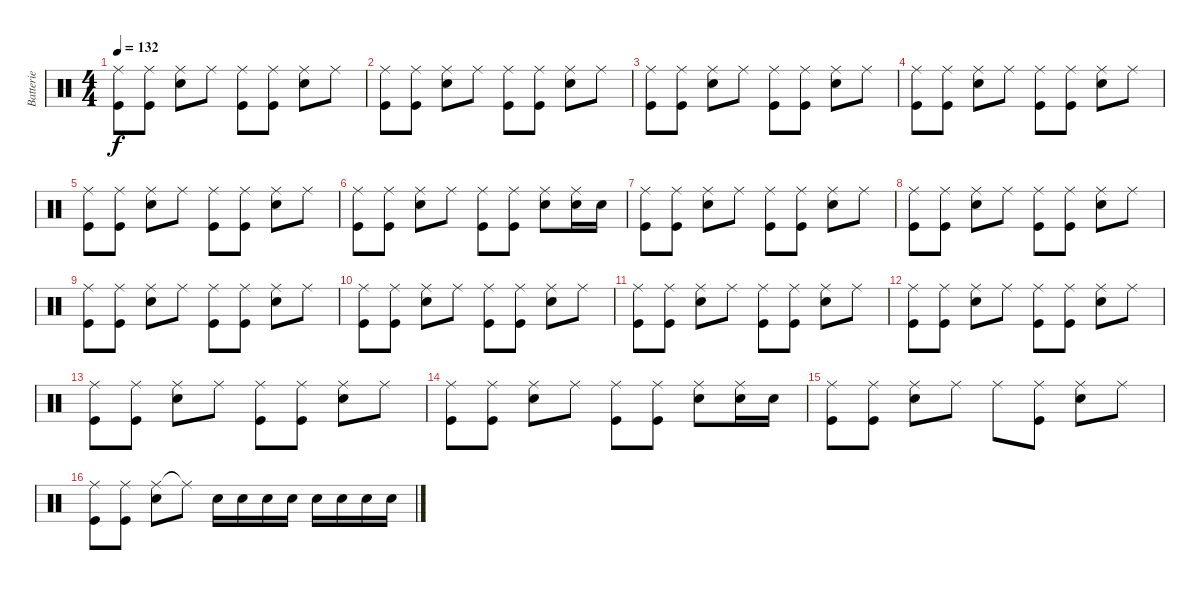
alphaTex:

\track ("Batterie" "Batterie") {instrument percussion}
\staff {score}
\articulation defaults
\ts (4 4)
\tempo 132
\clef neutral
\ks c
("Ride (middle)" "Kick (hit)").8{dy f} ("Ride (middle)" "Kick (hit)").8 ("Ride (middle)" "Snare (hit) 2").8 "Ride (middle)".8 ("Ride (middle)" "Kick (hit)").8 ("Ride (middle)" "Kick (hit)").8 ("Ride (middle)" "Snare (hit) 2").8 "Ride (middle)".8 |
("Ride (middle)" "Kick (hit)").8 ("Ride (middle)" "Kick (hit)").8 ("Ride (middle)" "Snare (hit) 2").8 "Ride (middle)".8 ("Ride (middle)" "Kick (hit)").8 ("Ride (middle)" "Kick (hit)").8 ("Ride (middle)" "Snare (hit) 2").8 "Ride (middle)".8 |
("Ride (middle)" "Kick (hit)").8 ("Ride (middle)" "Kick (hit)").8 ("Ride (middle)" "Snare (hit) 2").8 "Ride (middle)".8 ("Ride (middle)" "Kick (hit)").8 ("Ride (middle)" "Kick (hit)").8 ("Ride (middle)" "Snare (hit) 2").8 "Ride (middle)".8 |
("Ride (middle)" "Kick (hit)").8 ("Ride (middle)" "Kick (hit)").8 ("Ride (middle)" "Snare (hit) 2").8 "Ride (middle)".8 ("Ride (middle)" "Kick (hit)").8 ("Ride (middle)" "Kick (hit)").8 ("Ride (middle)" "Snare (hit) 2").8 "Ride (middle)".8 |
("Ride (middle)" "Kick (hit)").8 ("Ride (middle)" "Kick (hit)").8 ("Ride (middle)" "Snare (hit) 2").8 "Ride (middle)".8 ("Ride (middle)" "Kick (hit)").8 ("Ride (middle)" "Kick (hit)").8 ("Ride (middle)" "Snare (hit) 2").8 "Ride (middle)".8 |
("Ride (middle)" "Kick (hit)").8 ("Ride (middle)" "Kick (hit)").8 ("Ride (middle)" "Snare (hit) 2").8 "Ride (middle)".8 ("Ride (middle)" "Kick (hit)").8 ("Ride (middle)" "Kick (hit)").8 ("Ride (middle)" "Snare (hit) 2").8 ("Ride (middle)" "Snare (hit) 2").16 "Snare (hit) 2".16 |
("Ride (middle)" "Kick (hit)").8 ("Ride (middle)" "Kick (hit)").8 ("Ride (middle)" "Snare (hit) 2").8 "Ride (middle)".8 ("Ride (middle)" "Kick (hit)").8 ("Ride (middle)" "Kick (hit)").8 ("Ride (middle)" "Snare (hit) 2").8 "Ride (middle)".8 |
("Ride (middle)" "Kick (hit)").8 ("Ride (middle)" "Kick (hit)").8 ("Ride (middle)" "Snare (hit) 2").8 "Ride (middle)".8 ("Ride (middle)" "Kick (hit)").8 ("Ride (middle)" "Kick (hit)").8 ("Ride (middle)" "Snare (hit) 2").8 "Ride (middle)".8 |
("Ride (middle)" "Kick (hit)").8 ("Ride (middle)" "Kick (hit)").8 ("Ride (middle)" "Snare (hit) 2").8 "Ride (middle)".8 ("Ride (middle)" "Kick (hit)").8 ("Ride (middle)" "Kick (hit)").8 ("Ride (middle)" "Snare (hit) 2").8 "Ride (middle)".8 |
("Ride (middle)" "Kick (hit)").8 ("Ride (middle)" "Kick (hit)").8 ("Ride (middle)" "Snare (hit) 2").8 "Ride (middle)".8 ("Ride (middle)" "Kick (hit)").8 ("Ride (middle)" "Kick (hit)").8 ("Ride (middle)" "Snare (hit) 2").8 "Ride (middle)".8 |
("Ride (middle)" "Kick (hit)").8 ("Ride (middle)" "Kick (hit)").8 ("Ride (middle)" "Snare (hit) 2").8 "Ride (middle)".8 ("Ride (middle)" "Kick (hit)").8 ("Ride (middle)" "Kick (hit)").8 ("Ride (middle)" "Snare (hit) 2").8 "Ride (middle)".8 |
("Ride (middle)" "Kick (hit)").8 ("Ride (middle)" "Kick (hit)").8 ("Ride (middle)" "Snare (hit) 2").8 "Ride (middle)".8 ("Ride (middle)" "Kick (hit)").8 ("Ride (middle)" "Kick (hit)").8 ("Ride (middle)" "Snare (hit) 2").8 "Ride (middle)".8 |
("Ride (middle)" "Kick (hit)").8 ("Ride (middle)" "Kick (hit)").8 ("Ride (middle)" "Snare (hit) 2").8 "Ride (middle)".8 ("Ride (middle)" "Kick (hit)").8 ("Ride (middle)" "Kick (hit)").8 ("Ride (middle)" "Snare (hit) 2").8 "Ride (middle)".8 |
("Ride (middle)" "Kick (hit)").8 ("Ride (middle)" "Kick (hit)").8 ("Ride (middle)" "Snare (hit) 2").8 "Ride (middle)".8 ("Ride (middle)" "Kick (hit)").8 ("Ride (middle)" "Kick (hit)").8 ("Ride (middle)" "Snare (hit) 2").8 ("Ride (middle)" "Snare (hit) 2").16 "Snare (hit) 2".16 |
("Ride (middle)" "Kick (hit)").8 ("Ride (middle)" "Kick (hit)").8 ("Ride (middle)" "Snare (hit) 2").8 "Ride (middle)".8 "Ride (middle)".8 ("Ride (middle)" "Kick (hit)").8 ("Ride (middle)" "Snare (hit) 2").8 "Ride (middle)".8 |
("Ride (middle)" "Kick (hit)").8 ("Ride (middle)" "Kick (hit)").8 ("Ride (middle)" "Snare (hit) 2").8 "Ride (middle)"{t}.8 "Snare (hit) 2".16 "Snare (hit) 2".16 "Snare (hit) 2".16 "Snare (hit) 2".16 "Snare (hit) 2".16 "Snare (hit) 2".16 "Snare (hit) 2".16 "Snare (hit) 2".16
